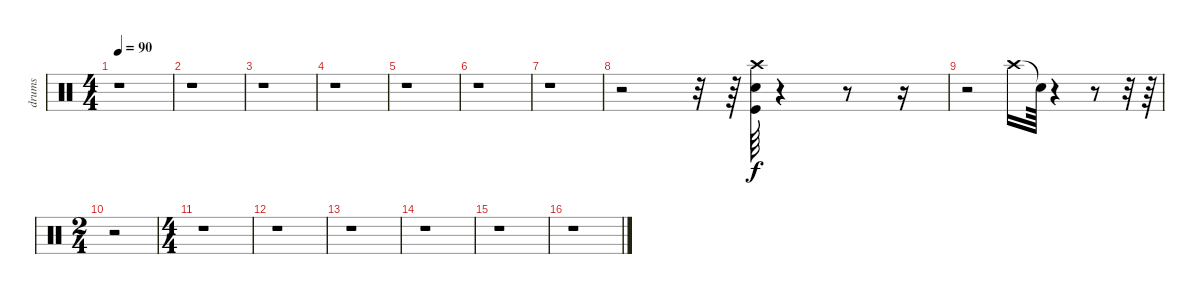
\track ("drums" "drums") {instrument percussion}
\staff {score}
\articulation defaults
\ts (4 4)
\tempo 90
\clef neutral
\ks c
r.1{dy f} |
r.1 |
r.1 |
r.1 |
r.1 |
r.1 |
r.1 |
r.2 r.32 r.64 ("Kick (hit)" "Snare (hit) 2" "Crash high (hit)").64 r.4 r.8 r.16 |
r.2 "Crash high (hit)".16 "Snare (hit)"{t}.64 r.4 r.8 r.32 r.64 |
\ts (2 4)
r.2 |
\ts (4 4)
r.1 |
r.1 |
r.1 |
r.1 |
r.1 |
r.1
